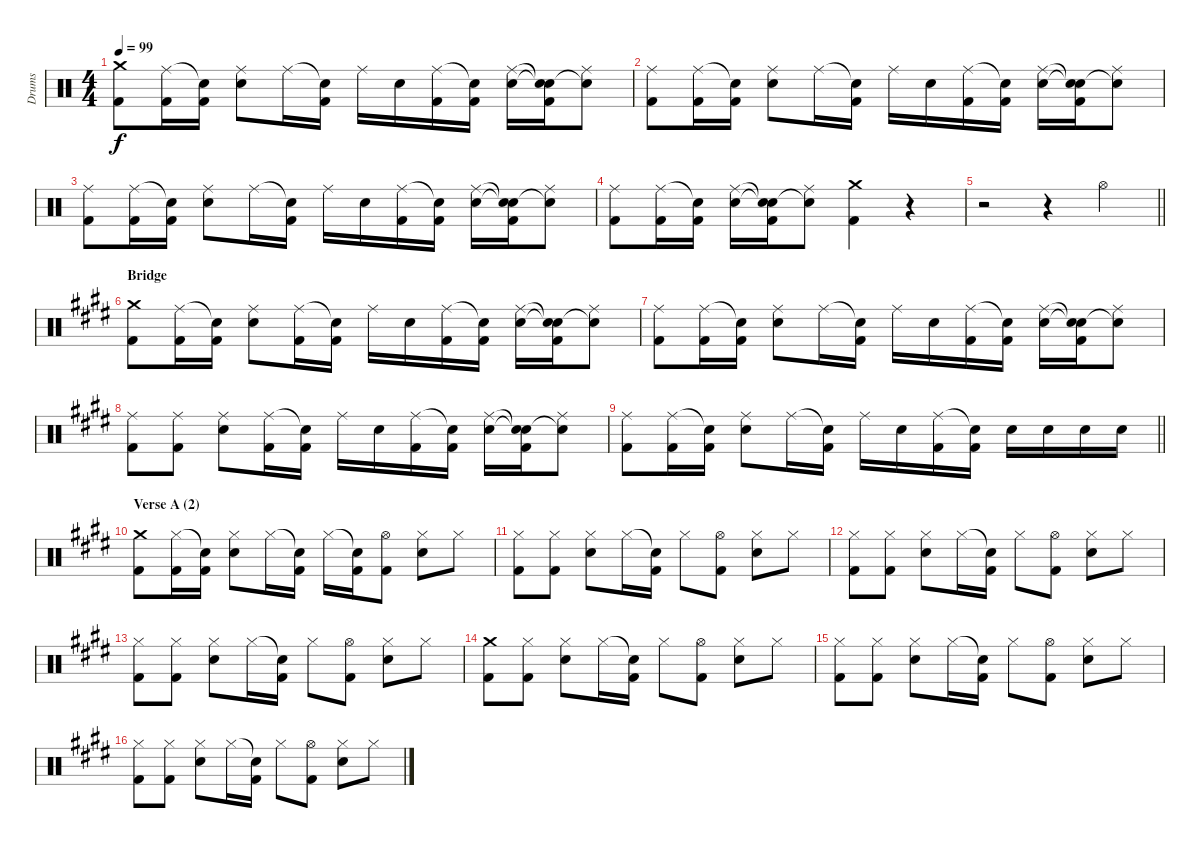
\track ("Drums" "Drums") {instrument percussion}
\staff {score}
\articulation defaults
\ts (4 4)
\tempo 99
\clef neutral
\ks c
("Crash medium (hit)" "Kick (hit) 2").8{dy f} ("Ride (middle)" "Kick (hit) 2").16 ("Snare (hit)"{t} "Kick (hit) 2").16 ("Ride (middle)" "Electric Snare (hit)").8 "Ride (middle)".16 ("Snare (hit)"{t} "Kick (hit) 2").16 "Ride (middle)".16 "Electric Snare (hit)".16 ("Ride (middle)" "Kick (hit) 2").16 ("Snare (hit)"{t} "Kick (hit) 2").16 ("Ride (middle)" "Electric Snare (hit)").16 ("Snare (hit)"{t} "Snare (hit)"{t} "Kick (hit) 2").16 ("Ride (middle)" "Snare (hit)"{t}).8 |
("Ride (middle)" "Kick (hit) 2").8 ("Ride (middle)" "Kick (hit) 2").16 ("Snare (hit)"{t} "Kick (hit) 2").16 ("Ride (middle)" "Electric Snare (hit)").8 "Ride (middle)".16 ("Snare (hit)"{t} "Kick (hit) 2").16 "Ride (middle)".16 "Electric Snare (hit)".16 ("Ride (middle)" "Kick (hit) 2").16 ("Snare (hit)"{t} "Kick (hit) 2").16 ("Ride (middle)" "Electric Snare (hit)").16 ("Snare (hit)"{t} "Snare (hit)"{t} "Kick (hit) 2").16 ("Ride (middle)" "Snare (hit)"{t}).8 |
("Ride (middle)" "Kick (hit) 2").8 ("Ride (middle)" "Kick (hit) 2").16 ("Snare (hit)"{t} "Kick (hit) 2").16 ("Ride (middle)" "Electric Snare (hit)").8 "Ride (middle)".16 ("Snare (hit)"{t} "Kick (hit) 2").16 "Ride (middle)".16 "Electric Snare (hit)".16 ("Ride (middle)" "Kick (hit) 2").16 ("Snare (hit)"{t} "Kick (hit) 2").16 ("Ride (middle)" "Electric Snare (hit)").16 ("Snare (hit)"{t} "Snare (hit)"{t} "Kick (hit) 2").16 ("Ride (middle)" "Snare (hit)"{t}).8 |
("Ride (middle)" "Kick (hit) 2").8 ("Ride (middle)" "Kick (hit) 2").16 ("Snare (hit)"{t} "Kick (hit) 2").16 ("Ride (middle)" "Electric Snare (hit)").16 ("Snare (hit)"{t} "Snare (hit)"{t} "Kick (hit) 2").16 ("Ride (middle)" "Snare (hit)"{t}).8 ("Crash medium (hit)" "Kick (hit) 2").4 r.4 |
\barLineRight lightlight
r.2 r.4 "Hi-Hat (open)".4 |
\section ("" "Bridge")
\ks c#minor
("Crash medium (hit)" "Kick (hit) 2").8 ("Ride (middle)" "Kick (hit) 2").16 ("Snare (hit)"{t} "Kick (hit) 2").16 ("Ride (middle)" "Electric Snare (hit)").8 ("Ride (middle)" "Kick (hit) 2").16 ("Snare (hit)"{t} "Kick (hit) 2").16 "Ride (middle)".16 "Electric Snare (hit)".16 ("Ride (middle)" "Kick (hit) 2").16 ("Snare (hit)"{t} "Kick (hit) 2").16 ("Ride (middle)" "Electric Snare (hit)").16 ("Snare (hit)"{t} "Snare (hit)"{t} "Kick (hit) 2").16 ("Ride (middle)" "Snare (hit)"{t}).8 |
("Ride (middle)" "Kick (hit) 2").8 ("Ride (middle)" "Kick (hit) 2").16 ("Snare (hit)"{t} "Kick (hit) 2").16 ("Ride (middle)" "Electric Snare (hit)").8 "Ride (middle)".16 ("Snare (hit)"{t} "Kick (hit) 2").16 "Ride (middle)".16 "Electric Snare (hit)".16 ("Ride (middle)" "Kick (hit) 2").16 ("Snare (hit)"{t} "Kick (hit) 2").16 ("Ride (middle)" "Electric Snare (hit)").16 ("Snare (hit)"{t} "Snare (hit)"{t} "Kick (hit) 2").16 ("Ride (middle)" "Snare (hit)"{t}).8 |
("Ride (middle)" "Kick (hit) 2").8 ("Ride (middle)" "Kick (hit) 2").8 ("Ride (middle)" "Electric Snare (hit)").8 ("Ride (middle)" "Kick (hit) 2").16 ("Snare (hit)"{t} "Kick (hit) 2").16 "Ride (middle)".16 "Electric Snare (hit)".16 ("Ride (middle)" "Kick (hit) 2").16 ("Snare (hit)"{t} "Kick (hit) 2").16 ("Ride (middle)" "Electric Snare (hit)").16 ("Snare (hit)"{t} "Snare (hit)"{t} "Kick (hit) 2").16 ("Ride (middle)" "Snare (hit)"{t}).8 |
\barLineRight lightlight
("Ride (middle)" "Kick (hit) 2").8 ("Ride (middle)" "Kick (hit) 2").16 ("Snare (hit)"{t} "Kick (hit) 2").16 ("Ride (middle)" "Electric Snare (hit)").8 "Ride (middle)".16 ("Snare (hit)"{t} "Kick (hit) 2").16 "Ride (middle)".16 "Electric Snare (hit)".16 ("Ride (middle)" "Kick (hit) 2").16 ("Snare (hit)"{t} "Kick (hit) 2").16 "Electric Snare (hit)".16 "Electric Snare (hit)".16 "Electric Snare (hit)".16 "Electric Snare (hit)".16 |
\section ("" "Verse A (2)")
("Crash medium (hit)" "Kick (hit) 2").8 ("Hi-Hat (closed)" "Kick (hit) 2").16 ("Snare (hit)"{t} "Kick (hit) 2").16 ("Hi-Hat (closed)" "Electric Snare (hit)").8 "Hi-Hat (closed)".16 ("Snare (hit)"{t} "Kick (hit) 2").16 "Hi-Hat (closed)".16 ("Snare (hit)"{t} "Kick (hit) 2").16 ("Hi-Hat (open)" "Kick (hit) 2").8 ("Hi-Hat (closed)" "Electric Snare (hit)").8 "Hi-Hat (closed)".8 |
("Hi-Hat (closed)" "Kick (hit) 2").8 ("Hi-Hat (closed)" "Kick (hit) 2").8 ("Hi-Hat (closed)" "Electric Snare (hit)").8 "Hi-Hat (closed)".16 ("Snare (hit)"{t} "Kick (hit) 2").16 "Hi-Hat (closed)".8 ("Hi-Hat (open)" "Kick (hit) 2").8 ("Hi-Hat (closed)" "Electric Snare (hit)").8 "Hi-Hat (closed)".8 |
("Hi-Hat (closed)" "Kick (hit) 2").8 ("Hi-Hat (closed)" "Kick (hit) 2").8 ("Hi-Hat (closed)" "Electric Snare (hit)").8 "Hi-Hat (closed)".16 ("Snare (hit)"{t} "Kick (hit) 2").16 "Hi-Hat (closed)".8 ("Hi-Hat (open)" "Kick (hit) 2").8 ("Hi-Hat (closed)" "Electric Snare (hit)").8 "Hi-Hat (closed)".8 |
("Hi-Hat (closed)" "Kick (hit) 2").8 ("Hi-Hat (closed)" "Kick (hit) 2").8 ("Hi-Hat (closed)" "Electric Snare (hit)").8 "Hi-Hat (closed)".16 ("Snare (hit)"{t} "Kick (hit) 2").16 "Hi-Hat (closed)".8 ("Hi-Hat (open)" "Kick (hit) 2").8 ("Hi-Hat (closed)" "Electric Snare (hit)").8 "Hi-Hat (closed)".8 |
("Crash medium (hit)" "Kick (hit) 2").8 ("Hi-Hat (closed)" "Kick (hit) 2").8 ("Hi-Hat (closed)" "Electric Snare (hit)").8 "Hi-Hat (closed)".16 ("Snare (hit)"{t} "Kick (hit) 2").16 "Hi-Hat (closed)".8 ("Hi-Hat (open)" "Kick (hit) 2").8 ("Hi-Hat (closed)" "Electric Snare (hit)").8 "Hi-Hat (closed)".8 |
("Hi-Hat (closed)" "Kick (hit) 2").8 ("Hi-Hat (closed)" "Kick (hit) 2").8 ("Hi-Hat (closed)" "Electric Snare (hit)").8 "Hi-Hat (closed)".16 ("Snare (hit)"{t} "Kick (hit) 2").16 "Hi-Hat (closed)".8 ("Hi-Hat (open)" "Kick (hit) 2").8 ("Hi-Hat (closed)" "Electric Snare (hit)").8 "Hi-Hat (closed)".8 |
("Hi-Hat (closed)" "Kick (hit) 2").8 ("Hi-Hat (closed)" "Kick (hit) 2").8 ("Hi-Hat (closed)" "Electric Snare (hit)").8 "Hi-Hat (closed)".16 ("Snare (hit)"{t} "Kick (hit) 2").16 "Hi-Hat (closed)".8 ("Hi-Hat (open)" "Kick (hit) 2").8 ("Hi-Hat (closed)" "Electric Snare (hit)").8 "Hi-Hat (closed)".8
